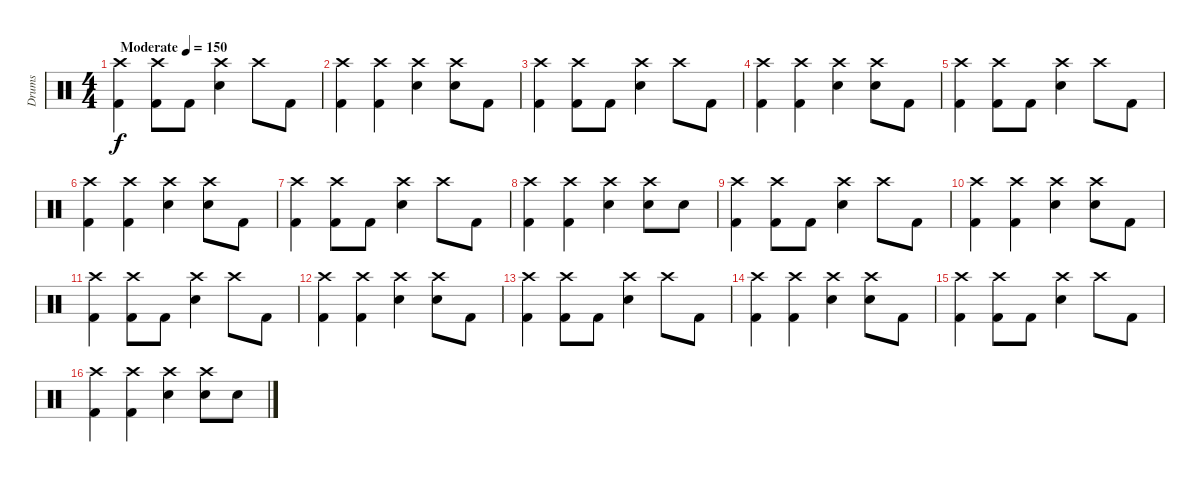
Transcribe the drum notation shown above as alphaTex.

\track ("Drums" "Drums") {instrument percussion}
\staff {score}
\articulation defaults
\ts (4 4)
\tempo (150 "Moderate")
\clef neutral
\ks c
("Crash high (hit)" "Kick (hit) 2").4{dy f} ("Crash high (hit)" "Kick (hit) 2").8 "Kick (hit) 2".8 ("Crash high (hit)" "Snare (hit) 2").4 "Crash high (hit)".8 "Kick (hit) 2".8 |
("Crash high (hit)" "Kick (hit) 2").4 ("Crash high (hit)" "Kick (hit) 2").4 ("Crash high (hit)" "Snare (hit) 2").4 ("Crash high (hit)" "Snare (hit) 2").8 "Kick (hit) 2".8 |
("Crash high (hit)" "Kick (hit) 2").4 ("Crash high (hit)" "Kick (hit) 2").8 "Kick (hit) 2".8 ("Crash high (hit)" "Snare (hit) 2").4 "Crash high (hit)".8 "Kick (hit) 2".8 |
("Crash high (hit)" "Kick (hit) 2").4 ("Crash high (hit)" "Kick (hit) 2").4 ("Crash high (hit)" "Snare (hit) 2").4 ("Crash high (hit)" "Snare (hit) 2").8 "Kick (hit) 2".8 |
("Crash high (hit)" "Kick (hit) 2").4 ("Crash high (hit)" "Kick (hit) 2").8 "Kick (hit) 2".8 ("Crash high (hit)" "Snare (hit) 2").4 "Crash high (hit)".8 "Kick (hit) 2".8 |
("Crash high (hit)" "Kick (hit) 2").4 ("Crash high (hit)" "Kick (hit) 2").4 ("Crash high (hit)" "Snare (hit) 2").4 ("Crash high (hit)" "Snare (hit) 2").8 "Kick (hit) 2".8 |
("Crash high (hit)" "Kick (hit) 2").4 ("Crash high (hit)" "Kick (hit) 2").8 "Kick (hit) 2".8 ("Crash high (hit)" "Snare (hit) 2").4 "Crash high (hit)".8 "Kick (hit) 2".8 |
("Crash high (hit)" "Kick (hit) 2").4 ("Crash high (hit)" "Kick (hit) 2").4 ("Crash high (hit)" "Snare (hit) 2").4 ("Crash high (hit)" "Snare (hit) 2").8 "Snare (hit) 2".8 |
("Crash high (hit)" "Kick (hit) 2").4 ("Crash high (hit)" "Kick (hit) 2").8 "Kick (hit) 2".8 ("Crash high (hit)" "Snare (hit) 2").4 "Crash high (hit)".8 "Kick (hit) 2".8 |
("Crash high (hit)" "Kick (hit) 2").4 ("Crash high (hit)" "Kick (hit) 2").4 ("Crash high (hit)" "Snare (hit) 2").4 ("Crash high (hit)" "Snare (hit) 2").8 "Kick (hit) 2".8 |
("Crash high (hit)" "Kick (hit) 2").4 ("Crash high (hit)" "Kick (hit) 2").8 "Kick (hit) 2".8 ("Crash high (hit)" "Snare (hit) 2").4 "Crash high (hit)".8 "Kick (hit) 2".8 |
("Crash high (hit)" "Kick (hit) 2").4 ("Crash high (hit)" "Kick (hit) 2").4 ("Crash high (hit)" "Snare (hit) 2").4 ("Crash high (hit)" "Snare (hit) 2").8 "Kick (hit) 2".8 |
("Crash high (hit)" "Kick (hit) 2").4 ("Crash high (hit)" "Kick (hit) 2").8 "Kick (hit) 2".8 ("Crash high (hit)" "Snare (hit) 2").4 "Crash high (hit)".8 "Kick (hit) 2".8 |
("Crash high (hit)" "Kick (hit) 2").4 ("Crash high (hit)" "Kick (hit) 2").4 ("Crash high (hit)" "Snare (hit) 2").4 ("Crash high (hit)" "Snare (hit) 2").8 "Kick (hit) 2".8 |
("Crash high (hit)" "Kick (hit) 2").4 ("Crash high (hit)" "Kick (hit) 2").8 "Kick (hit) 2".8 ("Crash high (hit)" "Snare (hit) 2").4 "Crash high (hit)".8 "Kick (hit) 2".8 |
("Crash high (hit)" "Kick (hit) 2").4 ("Crash high (hit)" "Kick (hit) 2").4 ("Crash high (hit)" "Snare (hit) 2").4 ("Crash high (hit)" "Snare (hit) 2").8 "Snare (hit) 2".8
